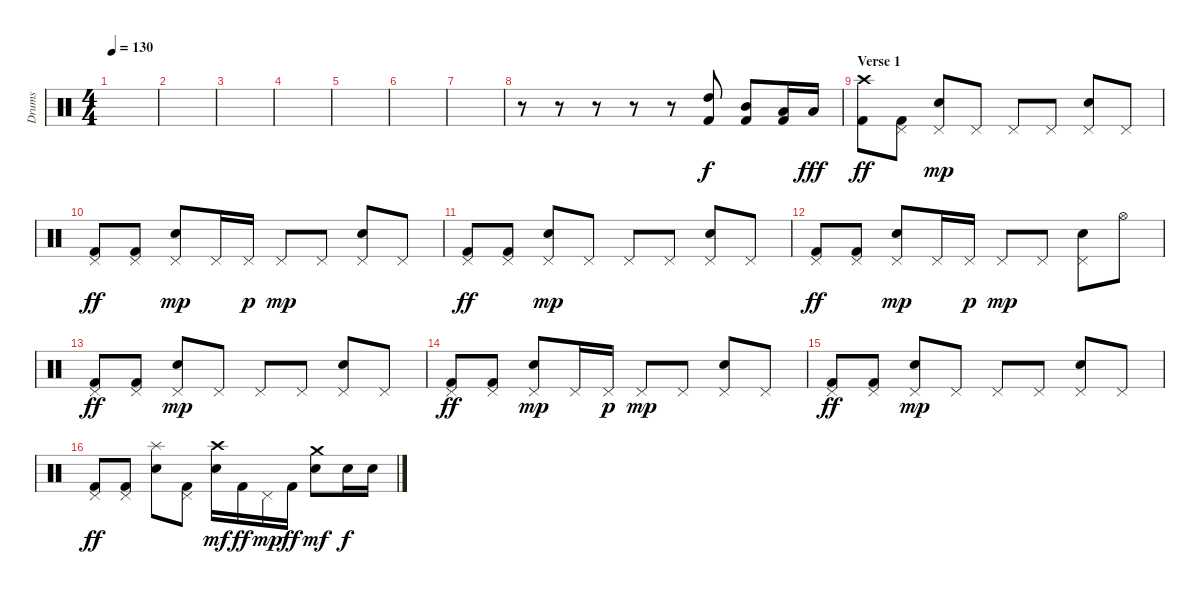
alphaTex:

\track ("Drums" "Drums") {instrument percussion}
\staff {score}
\articulation defaults
\ts (4 4)
\tempo 130
\clef neutral
\ks c
|
|
|
|
|
|
|
r.8 r.8 r.8 r.8 r.8 ("High Tom (hit)" "Kick (hit) 2").8 ("Mid Tom (hit)" "Kick (hit) 2").8 ("Low Tom (hit)" "Kick (hit) 2").16 "Low Tom (hit)".16{dy fff} |
\section ("" "Verse 1")
("Crash high (hit)" "Kick (hit) 2").8{dy ff} ("Pedal Hi-Hat (hit)" "Kick (hit) 2").8 ("Pedal Hi-Hat (hit)" "Electric Snare (hit)").8{dy mp} "Pedal Hi-Hat (hit)".8 "Pedal Hi-Hat (hit)".8 "Pedal Hi-Hat (hit)".8 ("Pedal Hi-Hat (hit)" "Electric Snare (hit)").8 "Pedal Hi-Hat (hit)".8 |
("Pedal Hi-Hat (hit)" "Kick (hit) 2").8{dy ff} ("Pedal Hi-Hat (hit)" "Kick (hit) 2").8 ("Pedal Hi-Hat (hit)" "Electric Snare (hit)").8{dy mp} "Pedal Hi-Hat (hit)".16 "Pedal Hi-Hat (hit)".16{dy p} "Pedal Hi-Hat (hit)".8{dy mp} "Pedal Hi-Hat (hit)".8 ("Pedal Hi-Hat (hit)" "Electric Snare (hit)").8 "Pedal Hi-Hat (hit)".8 |
("Pedal Hi-Hat (hit)" "Kick (hit) 2").8{dy ff} ("Pedal Hi-Hat (hit)" "Kick (hit) 2").8 ("Pedal Hi-Hat (hit)" "Electric Snare (hit)").8{dy mp} "Pedal Hi-Hat (hit)".8 "Pedal Hi-Hat (hit)".8 "Pedal Hi-Hat (hit)".8 ("Pedal Hi-Hat (hit)" "Electric Snare (hit)").8 "Pedal Hi-Hat (hit)".8 |
("Pedal Hi-Hat (hit)" "Kick (hit) 2").8{dy ff} ("Pedal Hi-Hat (hit)" "Kick (hit) 2").8 ("Pedal Hi-Hat (hit)" "Electric Snare (hit)").8{dy mp} "Pedal Hi-Hat (hit)".16 "Pedal Hi-Hat (hit)".16{dy p} "Pedal Hi-Hat (hit)".8{dy mp} "Pedal Hi-Hat (hit)".8 ("Pedal Hi-Hat (hit)" "Electric Snare (hit)").8 "Hi-Hat (open)".8 |
("Pedal Hi-Hat (hit)" "Kick (hit) 2").8{dy ff} ("Pedal Hi-Hat (hit)" "Kick (hit) 2").8 ("Pedal Hi-Hat (hit)" "Electric Snare (hit)").8{dy mp} "Pedal Hi-Hat (hit)".8 "Pedal Hi-Hat (hit)".8 "Pedal Hi-Hat (hit)".8 ("Pedal Hi-Hat (hit)" "Electric Snare (hit)").8 "Pedal Hi-Hat (hit)".8 |
("Pedal Hi-Hat (hit)" "Kick (hit) 2").8{dy ff} ("Pedal Hi-Hat (hit)" "Kick (hit) 2").8 ("Pedal Hi-Hat (hit)" "Electric Snare (hit)").8{dy mp} "Pedal Hi-Hat (hit)".16 "Pedal Hi-Hat (hit)".16{dy p} "Pedal Hi-Hat (hit)".8{dy mp} "Pedal Hi-Hat (hit)".8 ("Pedal Hi-Hat (hit)" "Electric Snare (hit)").8 "Pedal Hi-Hat (hit)".8 |
("Pedal Hi-Hat (hit)" "Kick (hit) 2").8{dy ff} ("Pedal Hi-Hat (hit)" "Kick (hit) 2").8 ("Pedal Hi-Hat (hit)" "Electric Snare (hit)").8{dy mp} "Pedal Hi-Hat (hit)".8 "Pedal Hi-Hat (hit)".8 "Pedal Hi-Hat (hit)".8 ("Pedal Hi-Hat (hit)" "Electric Snare (hit)").8 "Pedal Hi-Hat (hit)".8 |
("Pedal Hi-Hat (hit)" "Kick (hit) 2").8{dy ff} ("Pedal Hi-Hat (hit)" "Kick (hit) 2").8 ("Splash (hit)" "Electric Snare (hit)").8 ("Pedal Hi-Hat (hit)" "Kick (hit) 2").8 ("Crash high (hit)" "Electric Snare (hit)").16{dy mf} "Kick (hit) 2".16{dy ff} "Pedal Hi-Hat (hit)".16{dy mp} "Kick (hit) 2".16{dy ff} ("Crash medium (hit)" "Electric Snare (hit)").8{dy mf} "Electric Snare (hit)".16{dy f} "Electric Snare (hit)".16
